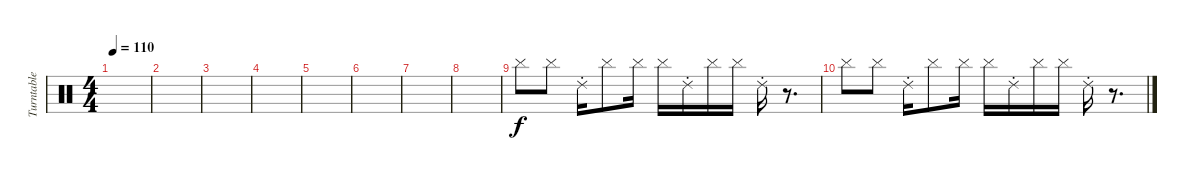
\track ("Turntable" "Turntable") {instrument percussion}
\staff {score}
\articulation defaults
\ts (4 4)
\tempo 110
\clef neutral
\ks c
|
|
|
|
|
|
|
|
"Cymbal (hit)".8 "Cymbal (hit)".8 "Ride (choke) 2".16 "Cymbal (hit)".8 "Cymbal (hit)".16 "Cymbal (hit)".16 "Ride (choke) 2".16 "Cymbal (hit)".16 "Cymbal (hit)".16 "Ride (choke) 2".16 r.8{d} |
"Cymbal (hit)".8 "Cymbal (hit)".8 "Ride (choke) 2".16 "Cymbal (hit)".8 "Cymbal (hit)".16 "Cymbal (hit)".16 "Ride (choke) 2".16 "Cymbal (hit)".16 "Cymbal (hit)".16 "Ride (choke) 2".16 r.8{d}
